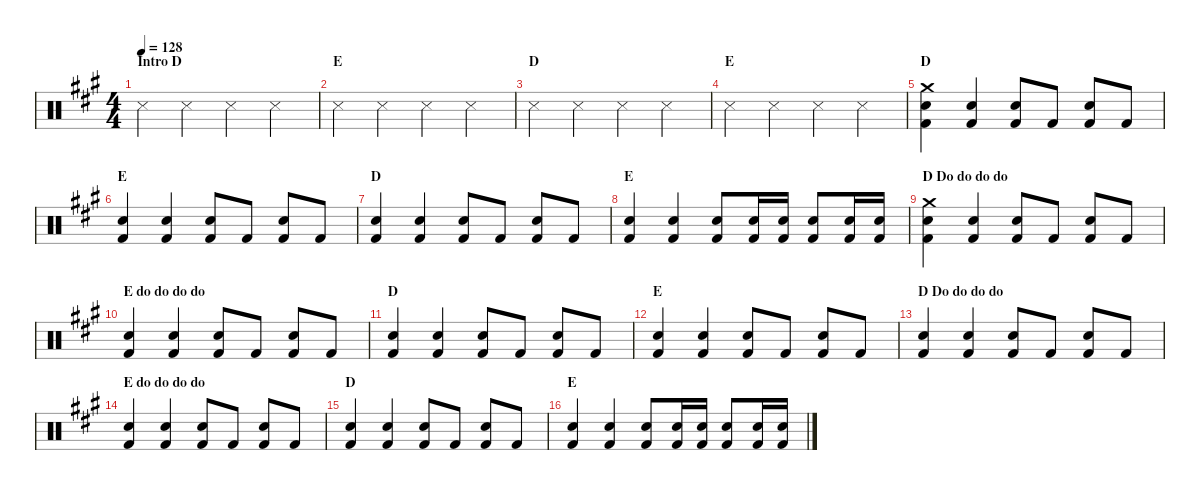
\hideDynamics
\bracketExtendMode nobrackets
\singleTrackTrackNamePolicy hidden
\multiTrackTrackNamePolicy hidden
\firstSystemTrackNameMode fullname
\firstSystemTrackNameOrientation horizontal
\otherSystemsTrackNameOrientation horizontal
\track ("Drumkit" "Drums") {instrument percussion}
\staff {score}
\articulation defaults
\ts (4 4)
\beaming (8 2 2 2 2)
\section ("" "Intro D")
\tempo 128
\clef neutral
\ks a "Snare (side stick) 3"{acc forcenatural}.4{dy mf beam Down} "Snare (side stick) 3"{acc forcenatural}.4{dy f beam Down} "Snare (side stick) 3"{acc forcenatural}.4{beam Down} "Snare (side stick) 3"{acc forcenatural}.4{beam Down}
|
\section ("" "E")
"Snare (side stick) 3"{acc forcenatural}.4{beam Down} "Snare (side stick) 3"{acc forcenatural}.4{beam Down} "Snare (side stick) 3"{acc forcenatural}.4{beam Down} "Snare (side stick) 3"{acc forcenatural}.4{beam Down} |
\section ("" "D")
"Snare (side stick) 3"{acc forcenatural}.4{beam Down} "Snare (side stick) 3"{acc forcenatural}.4{beam Down} "Snare (side stick) 3"{acc forcenatural}.4{beam Down} "Snare (side stick) 3"{acc forcenatural}.4{beam Down} |
\section ("" "E")
"Snare (side stick) 3"{acc forcenatural}.4{beam Down} "Snare (side stick) 3"{acc forcenatural}.4{beam Down} "Snare (side stick) 3"{acc forcenatural}.4{beam Down} "Snare (side stick) 3"{acc forcenatural}.4{beam Down} |
\section ("" "D")
("Crash medium (hit)"{acc forcenatural} "Snare (hit) 2"{acc forcenatural} "Kick (hit) 2"{acc forcenatural}).4{beam Down} ("Snare (hit) 2"{acc forcenatural} "Kick (hit) 2"{acc forcenatural}).4{beam Up} ("Snare (hit) 2"{acc forcenatural} "Kick (hit) 2"{acc forcenatural}).8{beam Up} "Kick (hit) 2"{acc forcenatural}.8{beam Up} ("Snare (hit) 2"{acc forcenatural} "Kick (hit) 2"{acc forcenatural}).8{beam Up} "Kick (hit) 2"{acc forcenatural}.8{beam Up} |
\section ("" "E")
("Snare (hit) 2"{acc forcenatural} "Kick (hit) 2"{acc forcenatural}).4{beam Up} ("Snare (hit) 2"{acc forcenatural} "Kick (hit) 2"{acc forcenatural}).4{beam Up} ("Snare (hit) 2"{acc forcenatural} "Kick (hit) 2"{acc forcenatural}).8{beam Up} "Kick (hit) 2"{acc forcenatural}.8{beam Up} ("Snare (hit) 2"{acc forcenatural} "Kick (hit) 2"{acc forcenatural}).8{beam Up} "Kick (hit) 2"{acc forcenatural}.8{beam Up} |
\section ("" "D")
("Snare (hit) 2"{acc forcenatural} "Kick (hit) 2"{acc forcenatural}).4{beam Up} ("Snare (hit) 2"{acc forcenatural} "Kick (hit) 2"{acc forcenatural}).4{beam Up} ("Snare (hit) 2"{acc forcenatural} "Kick (hit) 2"{acc forcenatural}).8{beam Up} "Kick (hit) 2"{acc forcenatural}.8{beam Up} ("Snare (hit) 2"{acc forcenatural} "Kick (hit) 2"{acc forcenatural}).8{beam Up} "Kick (hit) 2"{acc forcenatural}.8{beam Up} |
\section ("" "E")
("Snare (hit) 2"{acc forcenatural} "Kick (hit) 2"{acc forcenatural}).4{beam Up} ("Snare (hit) 2"{acc forcenatural} "Kick (hit) 2"{acc forcenatural}).4{beam Up} ("Snare (hit) 2"{acc forcenatural} "Kick (hit) 2"{acc forcenatural}).8{beam Up} ("Snare (hit) 2"{acc forcenatural} "Kick (hit) 2"{acc forcenatural}).16{beam Up} ("Snare (hit) 2"{acc forcenatural} "Kick (hit) 2"{acc forcenatural}).16{beam Up} ("Snare (hit) 2"{acc forcenatural} "Kick (hit) 2"{acc forcenatural}).8{beam Up} ("Snare (hit) 2"{acc forcenatural} "Kick (hit) 2"{acc forcenatural}).16{beam Up} ("Snare (hit) 2"{acc forcenatural} "Kick (hit) 2"{acc forcenatural}).16{beam Up} |
\section ("" "D Do do do do")
("Crash medium (hit)"{acc forcenatural} "Snare (hit) 2"{acc forcenatural} "Kick (hit) 2"{acc forcenatural}).4{beam Down} ("Snare (hit) 2"{acc forcenatural} "Kick (hit) 2"{acc forcenatural}).4{beam Up} ("Snare (hit) 2"{acc forcenatural} "Kick (hit) 2"{acc forcenatural}).8{beam Up} "Kick (hit) 2"{acc forcenatural}.8{beam Up} ("Snare (hit) 2"{acc forcenatural} "Kick (hit) 2"{acc forcenatural}).8{beam Up} "Kick (hit) 2"{acc forcenatural}.8{beam Up} |
\section ("" "E do do do do")
("Snare (hit) 2"{acc forcenatural} "Kick (hit) 2"{acc forcenatural}).4{beam Up} ("Snare (hit) 2"{acc forcenatural} "Kick (hit) 2"{acc forcenatural}).4{beam Up} ("Snare (hit) 2"{acc forcenatural} "Kick (hit) 2"{acc forcenatural}).8{beam Up} "Kick (hit) 2"{acc forcenatural}.8{beam Up} ("Snare (hit) 2"{acc forcenatural} "Kick (hit) 2"{acc forcenatural}).8{beam Up} "Kick (hit) 2"{acc forcenatural}.8{beam Up} |
\section ("" "D")
("Snare (hit) 2"{acc forcenatural} "Kick (hit) 2"{acc forcenatural}).4{beam Up} ("Snare (hit) 2"{acc forcenatural} "Kick (hit) 2"{acc forcenatural}).4{beam Up} ("Snare (hit) 2"{acc forcenatural} "Kick (hit) 2"{acc forcenatural}).8{beam Up} "Kick (hit) 2"{acc forcenatural}.8{beam Up} ("Snare (hit) 2"{acc forcenatural} "Kick (hit) 2"{acc forcenatural}).8{beam Up} "Kick (hit) 2"{acc forcenatural}.8{beam Up} |
\section ("" "E")
("Snare (hit) 2"{acc forcenatural} "Kick (hit) 2"{acc forcenatural}).4{beam Up} ("Snare (hit) 2"{acc forcenatural} "Kick (hit) 2"{acc forcenatural}).4{beam Up} ("Snare (hit) 2"{acc forcenatural} "Kick (hit) 2"{acc forcenatural}).8{beam Up} "Kick (hit) 2"{acc forcenatural}.8{beam Up} ("Snare (hit) 2"{acc forcenatural} "Kick (hit) 2"{acc forcenatural}).8{beam Up} "Kick (hit) 2"{acc forcenatural}.8{beam Up} |
\section ("" "D Do do do do")
("Snare (hit) 2"{acc forcenatural} "Kick (hit) 2"{acc forcenatural}).4{beam Up} ("Snare (hit) 2"{acc forcenatural} "Kick (hit) 2"{acc forcenatural}).4{beam Up} ("Snare (hit) 2"{acc forcenatural} "Kick (hit) 2"{acc forcenatural}).8{beam Up} "Kick (hit) 2"{acc forcenatural}.8{beam Up} ("Snare (hit) 2"{acc forcenatural} "Kick (hit) 2"{acc forcenatural}).8{beam Up} "Kick (hit) 2"{acc forcenatural}.8{beam Up} |
\section ("" "E do do do do")
("Snare (hit) 2"{acc forcenatural} "Kick (hit) 2"{acc forcenatural}).4{beam Up} ("Snare (hit) 2"{acc forcenatural} "Kick (hit) 2"{acc forcenatural}).4{beam Up} ("Snare (hit) 2"{acc forcenatural} "Kick (hit) 2"{acc forcenatural}).8{beam Up} "Kick (hit) 2"{acc forcenatural}.8{beam Up} ("Snare (hit) 2"{acc forcenatural} "Kick (hit) 2"{acc forcenatural}).8{beam Up} "Kick (hit) 2"{acc forcenatural}.8{beam Up} |
\section ("" "D")
("Snare (hit) 2"{acc forcenatural} "Kick (hit) 2"{acc forcenatural}).4{beam Up} ("Snare (hit) 2"{acc forcenatural} "Kick (hit) 2"{acc forcenatural}).4{beam Up} ("Snare (hit) 2"{acc forcenatural} "Kick (hit) 2"{acc forcenatural}).8{beam Up} "Kick (hit) 2"{acc forcenatural}.8{beam Up} ("Snare (hit) 2"{acc forcenatural} "Kick (hit) 2"{acc forcenatural}).8{beam Up} "Kick (hit) 2"{acc forcenatural}.8{beam Up} |
\section ("" "E")
("Snare (hit) 2"{acc forcenatural} "Kick (hit) 2"{acc forcenatural}).4{beam Up} ("Snare (hit) 2"{acc forcenatural} "Kick (hit) 2"{acc forcenatural}).4{beam Up} ("Snare (hit) 2"{acc forcenatural} "Kick (hit) 2"{acc forcenatural}).8{beam Up} ("Snare (hit) 2"{acc forcenatural} "Kick (hit) 2"{acc forcenatural}).16{beam Up} ("Snare (hit) 2"{acc forcenatural} "Kick (hit) 2"{acc forcenatural}).16{beam Up} ("Snare (hit) 2"{acc forcenatural} "Kick (hit) 2"{acc forcenatural}).8{beam Up} ("Snare (hit) 2"{acc forcenatural} "Kick (hit) 2"{acc forcenatural}).16{beam Up} ("Snare (hit) 2"{acc forcenatural} "Kick (hit) 2"{acc forcenatural}).16{beam Up}
